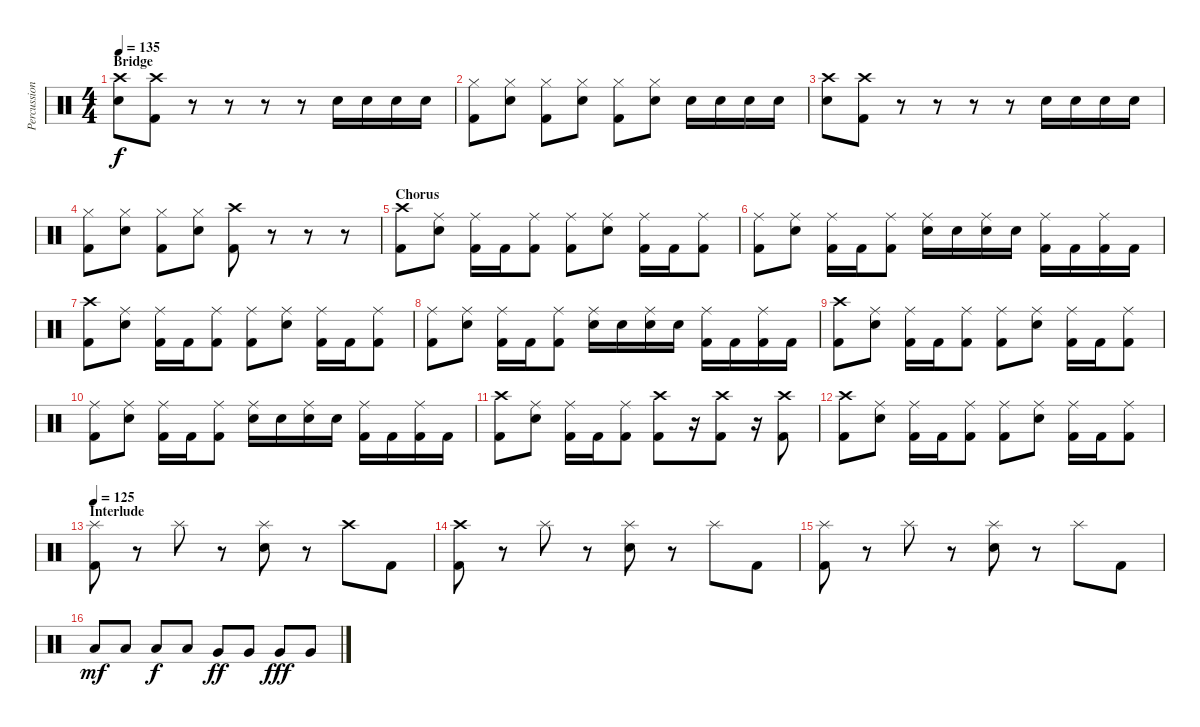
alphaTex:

\track ("Percussion" "Percussion") {instrument percussion}
\staff {score}
\articulation defaults
\ts (4 4)
\section ("" "Bridge")
\tempo 135
\clef neutral
\ks c
("Crash high (hit)" "Electric Snare (hit)").8{dy f} ("Crash high (hit)" "Kick (hit) 2").8 r.8 r.8 r.8 r.8 "Electric Snare (hit)".16 "Electric Snare (hit)".16 "Electric Snare (hit)".16 "Electric Snare (hit)".16 |
("Hi-Hat (closed)" "Kick (hit) 2").8 ("Hi-Hat (closed)" "Electric Snare (hit)").8 ("Hi-Hat (closed)" "Kick (hit) 2").8 ("Hi-Hat (closed)" "Electric Snare (hit)").8 ("Hi-Hat (closed)" "Kick (hit) 2").8 ("Hi-Hat (closed)" "Electric Snare (hit)").8 "Electric Snare (hit)".16 "Electric Snare (hit)".16 "Electric Snare (hit)".16 "Electric Snare (hit)".16 |
("Crash high (hit)" "Electric Snare (hit)").8 ("Crash high (hit)" "Kick (hit) 2").8 r.8 r.8 r.8 r.8 "Electric Snare (hit)".16 "Electric Snare (hit)".16 "Electric Snare (hit)".16 "Electric Snare (hit)".16 |
("Hi-Hat (closed)" "Kick (hit) 2").8 ("Hi-Hat (closed)" "Electric Snare (hit)").8 ("Hi-Hat (closed)" "Kick (hit) 2").8 ("Hi-Hat (closed)" "Electric Snare (hit)").8 ("Crash high (hit)" "Kick (hit) 2").8 r.8 r.8 r.8 |
\section ("" "Chorus")
("Crash high (hit)" "Kick (hit) 2").8 ("Ride (middle)" "Electric Snare (hit)").8 ("Ride (middle)" "Kick (hit) 2").16 "Kick (hit) 2".16 ("Ride (middle)" "Kick (hit) 2").8 ("Ride (middle)" "Kick (hit) 2").8 ("Ride (middle)" "Electric Snare (hit)").8 ("Ride (middle)" "Kick (hit) 2").16 "Kick (hit) 2".16 ("Ride (middle)" "Kick (hit) 2").8 |
("Ride (middle)" "Kick (hit) 2").8 ("Ride (middle)" "Electric Snare (hit)").8 ("Ride (middle)" "Kick (hit) 2").16 "Kick (hit) 2".16 ("Ride (middle)" "Kick (hit) 2").8 ("Ride (middle)" "Electric Snare (hit)").16 "Electric Snare (hit)".16 ("Ride (middle)" "Electric Snare (hit)").16 "Electric Snare (hit)".16 ("Ride (middle)" "Kick (hit) 2").16 "Kick (hit) 2".16 ("Ride (middle)" "Kick (hit) 2").16 "Kick (hit) 2".16 |
("Crash high (hit)" "Kick (hit) 2").8 ("Ride (middle)" "Electric Snare (hit)").8 ("Ride (middle)" "Kick (hit) 2").16 "Kick (hit) 2".16 ("Ride (middle)" "Kick (hit) 2").8 ("Ride (middle)" "Kick (hit) 2").8 ("Ride (middle)" "Electric Snare (hit)").8 ("Ride (middle)" "Kick (hit) 2").16 "Kick (hit) 2".16 ("Ride (middle)" "Kick (hit) 2").8 |
("Ride (middle)" "Kick (hit) 2").8 ("Ride (middle)" "Electric Snare (hit)").8 ("Ride (middle)" "Kick (hit) 2").16 "Kick (hit) 2".16 ("Ride (middle)" "Kick (hit) 2").8 ("Ride (middle)" "Electric Snare (hit)").16 "Electric Snare (hit)".16 ("Ride (middle)" "Electric Snare (hit)").16 "Electric Snare (hit)".16 ("Ride (middle)" "Kick (hit) 2").16 "Kick (hit) 2".16 ("Ride (middle)" "Kick (hit) 2").16 "Kick (hit) 2".16 |
("Crash high (hit)" "Kick (hit) 2").8 ("Ride (middle)" "Electric Snare (hit)").8 ("Ride (middle)" "Kick (hit) 2").16 "Kick (hit) 2".16 ("Ride (middle)" "Kick (hit) 2").8 ("Ride (middle)" "Kick (hit) 2").8 ("Ride (middle)" "Electric Snare (hit)").8 ("Ride (middle)" "Kick (hit) 2").16 "Kick (hit) 2".16 ("Ride (middle)" "Kick (hit) 2").8 |
("Ride (middle)" "Kick (hit) 2").8 ("Ride (middle)" "Electric Snare (hit)").8 ("Ride (middle)" "Kick (hit) 2").16 "Kick (hit) 2".16 ("Ride (middle)" "Kick (hit) 2").8 ("Ride (middle)" "Electric Snare (hit)").16 "Electric Snare (hit)".16 ("Ride (middle)" "Electric Snare (hit)").16 "Electric Snare (hit)".16 ("Ride (middle)" "Kick (hit) 2").16 "Kick (hit) 2".16 ("Ride (middle)" "Kick (hit) 2").16 "Kick (hit) 2".16 |
("Crash high (hit)" "Kick (hit) 2").8 ("Ride (middle)" "Electric Snare (hit)").8 ("Ride (middle)" "Kick (hit) 2").16 "Kick (hit) 2".16 ("Ride (middle)" "Kick (hit) 2").8 ("Crash high (hit)" "Kick (hit) 2").8 r.16 ("Crash high (hit)" "Kick (hit) 2").8 r.16 ("Crash high (hit)" "Kick (hit) 2").8 |
("Crash high (hit)" "Kick (hit) 2").8 ("Ride (middle)" "Electric Snare (hit)").8 ("Ride (middle)" "Kick (hit) 2").16 "Kick (hit) 2".16 ("Ride (middle)" "Kick (hit) 2").8 ("Ride (middle)" "Kick (hit) 2").8 ("Ride (middle)" "Electric Snare (hit)").8 ("Ride (middle)" "Kick (hit) 2").16 "Kick (hit) 2".16 ("Ride (middle)" "Kick (hit) 2").8 |
\section ("" "Interlude")
\tempo 125
("Splash (hit)" "Kick (hit) 2").8 r.8 "Splash (hit)".8 r.8 ("Splash (hit)" "Electric Snare (hit)").8 r.8 "Crash high (hit)".8 "Kick (hit) 2".8 |
("Crash high (hit)" "Kick (hit) 2").8 r.8 "Splash (hit)".8 r.8 ("Splash (hit)" "Electric Snare (hit)").8 r.8 "Splash (hit)".8 "Kick (hit) 2".8 |
("Splash (hit)" "Kick (hit) 2").8 r.8 "Splash (hit)".8 r.8 ("Splash (hit)" "Electric Snare (hit)").8 r.8 "Splash (hit)".8 "Kick (hit) 2".8 |
"Low Floor Tom (hit)".8{dy mf} "Low Floor Tom (hit)".8 "Low Floor Tom (hit)".8{dy f} "Low Floor Tom (hit)".8 "Very Low Tom (hit)".8{dy ff} "Very Low Tom (hit)".8 "Very Low Tom (hit)".8{dy fff} "Very Low Tom (hit)".8
